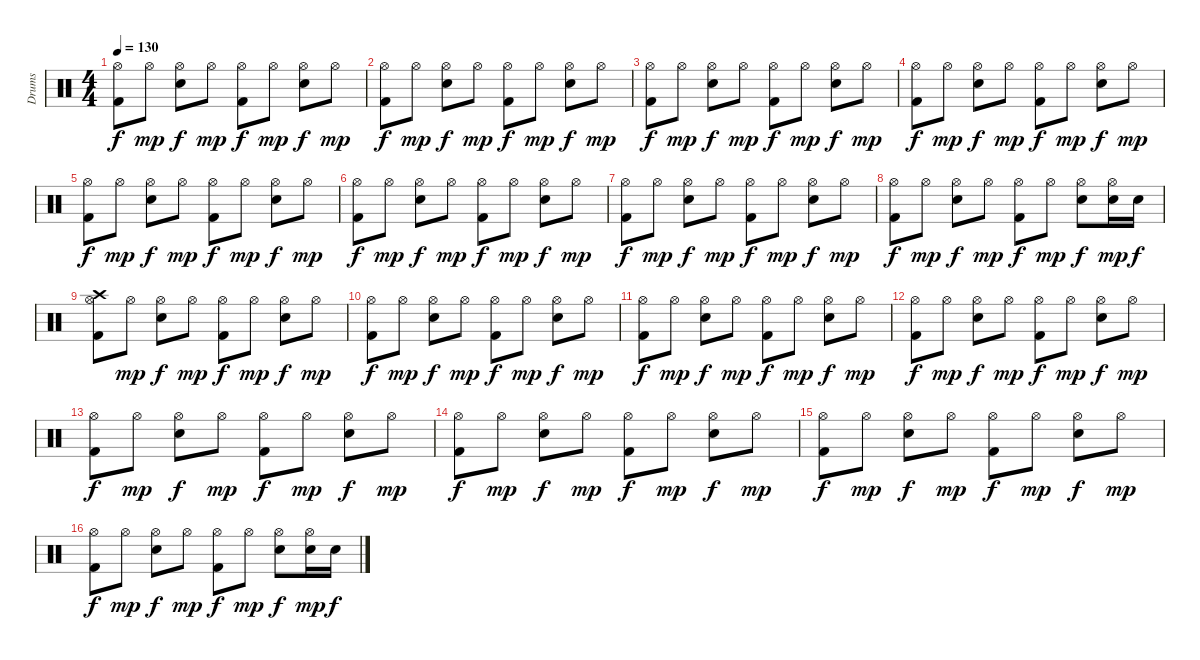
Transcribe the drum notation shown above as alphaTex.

\track ("Drums" "Drums") {instrument percussion}
\staff {score}
\articulation defaults
\ts (4 4)
\tempo 130
\clef neutral
\ks c
("Hi-Hat (open)" "Kick (hit) 2").8{dy f} "Hi-Hat (open)".8{dy mp} ("Hi-Hat (open)" "Electric Snare (hit)").8{dy f} "Hi-Hat (open)".8{dy mp} ("Hi-Hat (open)" "Kick (hit) 2").8{dy f} "Hi-Hat (open)".8{dy mp} ("Hi-Hat (open)" "Electric Snare (hit)").8{dy f} "Hi-Hat (open)".8{dy mp} |
("Hi-Hat (open)" "Kick (hit) 2").8{dy f} "Hi-Hat (open)".8{dy mp} ("Hi-Hat (open)" "Electric Snare (hit)").8{dy f} "Hi-Hat (open)".8{dy mp} ("Hi-Hat (open)" "Kick (hit) 2").8{dy f} "Hi-Hat (open)".8{dy mp} ("Hi-Hat (open)" "Electric Snare (hit)").8{dy f} "Hi-Hat (open)".8{dy mp} |
("Hi-Hat (open)" "Kick (hit) 2").8{dy f} "Hi-Hat (open)".8{dy mp} ("Hi-Hat (open)" "Electric Snare (hit)").8{dy f} "Hi-Hat (open)".8{dy mp} ("Hi-Hat (open)" "Kick (hit) 2").8{dy f} "Hi-Hat (open)".8{dy mp} ("Hi-Hat (open)" "Electric Snare (hit)").8{dy f} "Hi-Hat (open)".8{dy mp} |
("Hi-Hat (open)" "Kick (hit) 2").8{dy f} "Hi-Hat (open)".8{dy mp} ("Hi-Hat (open)" "Electric Snare (hit)").8{dy f} "Hi-Hat (open)".8{dy mp} ("Hi-Hat (open)" "Kick (hit) 2").8{dy f} "Hi-Hat (open)".8{dy mp} ("Hi-Hat (open)" "Electric Snare (hit)").8{dy f} "Hi-Hat (open)".8{dy mp} |
("Hi-Hat (open)" "Kick (hit) 2").8{dy f} "Hi-Hat (open)".8{dy mp} ("Hi-Hat (open)" "Electric Snare (hit)").8{dy f} "Hi-Hat (open)".8{dy mp} ("Hi-Hat (open)" "Kick (hit) 2").8{dy f} "Hi-Hat (open)".8{dy mp} ("Hi-Hat (open)" "Electric Snare (hit)").8{dy f} "Hi-Hat (open)".8{dy mp} |
("Hi-Hat (open)" "Kick (hit) 2").8{dy f} "Hi-Hat (open)".8{dy mp} ("Hi-Hat (open)" "Electric Snare (hit)").8{dy f} "Hi-Hat (open)".8{dy mp} ("Hi-Hat (open)" "Kick (hit) 2").8{dy f} "Hi-Hat (open)".8{dy mp} ("Hi-Hat (open)" "Electric Snare (hit)").8{dy f} "Hi-Hat (open)".8{dy mp} |
("Hi-Hat (open)" "Kick (hit) 2").8{dy f} "Hi-Hat (open)".8{dy mp} ("Hi-Hat (open)" "Electric Snare (hit)").8{dy f} "Hi-Hat (open)".8{dy mp} ("Hi-Hat (open)" "Kick (hit) 2").8{dy f} "Hi-Hat (open)".8{dy mp} ("Hi-Hat (open)" "Electric Snare (hit)").8{dy f} "Hi-Hat (open)".8{dy mp} |
("Hi-Hat (open)" "Kick (hit) 2").8{dy f} "Hi-Hat (open)".8{dy mp} ("Hi-Hat (open)" "Electric Snare (hit)").8{dy f} "Hi-Hat (open)".8{dy mp} ("Hi-Hat (open)" "Kick (hit) 2").8{dy f} "Hi-Hat (open)".8{dy mp} ("Hi-Hat (open)" "Electric Snare (hit)").8{dy f} ("Hi-Hat (open)" "Electric Snare (hit)").16{dy mp} "Electric Snare (hit)".16{dy f} |
("Crash high (hit)" "Hi-Hat (open)" "Kick (hit) 2").8 "Hi-Hat (open)".8{dy mp} ("Hi-Hat (open)" "Electric Snare (hit)").8{dy f} "Hi-Hat (open)".8{dy mp} ("Hi-Hat (open)" "Kick (hit) 2").8{dy f} "Hi-Hat (open)".8{dy mp} ("Hi-Hat (open)" "Electric Snare (hit)").8{dy f} "Hi-Hat (open)".8{dy mp} |
("Hi-Hat (open)" "Kick (hit) 2").8{dy f} "Hi-Hat (open)".8{dy mp} ("Hi-Hat (open)" "Electric Snare (hit)").8{dy f} "Hi-Hat (open)".8{dy mp} ("Hi-Hat (open)" "Kick (hit) 2").8{dy f} "Hi-Hat (open)".8{dy mp} ("Hi-Hat (open)" "Electric Snare (hit)").8{dy f} "Hi-Hat (open)".8{dy mp} |
("Hi-Hat (open)" "Kick (hit) 2").8{dy f} "Hi-Hat (open)".8{dy mp} ("Hi-Hat (open)" "Electric Snare (hit)").8{dy f} "Hi-Hat (open)".8{dy mp} ("Hi-Hat (open)" "Kick (hit) 2").8{dy f} "Hi-Hat (open)".8{dy mp} ("Hi-Hat (open)" "Electric Snare (hit)").8{dy f} "Hi-Hat (open)".8{dy mp} |
("Hi-Hat (open)" "Kick (hit) 2").8{dy f} "Hi-Hat (open)".8{dy mp} ("Hi-Hat (open)" "Electric Snare (hit)").8{dy f} "Hi-Hat (open)".8{dy mp} ("Hi-Hat (open)" "Kick (hit) 2").8{dy f} "Hi-Hat (open)".8{dy mp} ("Hi-Hat (open)" "Electric Snare (hit)").8{dy f} "Hi-Hat (open)".8{dy mp} |
("Hi-Hat (open)" "Kick (hit) 2").8{dy f} "Hi-Hat (open)".8{dy mp} ("Hi-Hat (open)" "Electric Snare (hit)").8{dy f} "Hi-Hat (open)".8{dy mp} ("Hi-Hat (open)" "Kick (hit) 2").8{dy f} "Hi-Hat (open)".8{dy mp} ("Hi-Hat (open)" "Electric Snare (hit)").8{dy f} "Hi-Hat (open)".8{dy mp} |
("Hi-Hat (open)" "Kick (hit) 2").8{dy f} "Hi-Hat (open)".8{dy mp} ("Hi-Hat (open)" "Electric Snare (hit)").8{dy f} "Hi-Hat (open)".8{dy mp} ("Hi-Hat (open)" "Kick (hit) 2").8{dy f} "Hi-Hat (open)".8{dy mp} ("Hi-Hat (open)" "Electric Snare (hit)").8{dy f} "Hi-Hat (open)".8{dy mp} |
("Hi-Hat (open)" "Kick (hit) 2").8{dy f} "Hi-Hat (open)".8{dy mp} ("Hi-Hat (open)" "Electric Snare (hit)").8{dy f} "Hi-Hat (open)".8{dy mp} ("Hi-Hat (open)" "Kick (hit) 2").8{dy f} "Hi-Hat (open)".8{dy mp} ("Hi-Hat (open)" "Electric Snare (hit)").8{dy f} "Hi-Hat (open)".8{dy mp} |
("Hi-Hat (open)" "Kick (hit) 2").8{dy f} "Hi-Hat (open)".8{dy mp} ("Hi-Hat (open)" "Electric Snare (hit)").8{dy f} "Hi-Hat (open)".8{dy mp} ("Hi-Hat (open)" "Kick (hit) 2").8{dy f} "Hi-Hat (open)".8{dy mp} ("Hi-Hat (open)" "Electric Snare (hit)").8{dy f} ("Hi-Hat (open)" "Electric Snare (hit)").16{dy mp} "Electric Snare (hit)".16{dy f}
